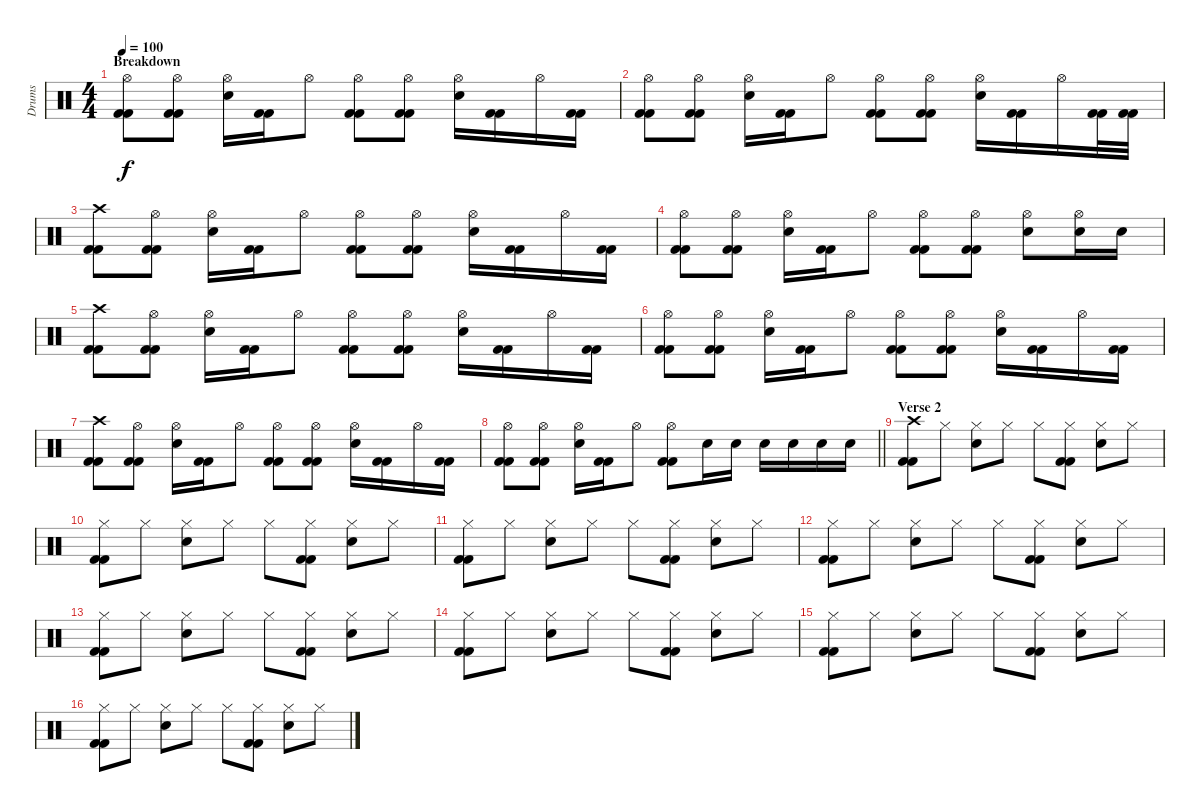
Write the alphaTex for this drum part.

\track ("Drums" "Drums") {instrument percussion}
\staff {score}
\articulation defaults
\ts (4 4)
\section ("" "Breakdown")
\tempo 100
\clef neutral
\ks c
("Hi-Hat (open)" "Kick (hit) 2" "Kick (hit) 2").8{dy f} ("Hi-Hat (open)" "Kick (hit) 2" "Kick (hit) 2").8 ("Hi-Hat (open)" "Electric Snare (hit)").16 ("Kick (hit) 2" "Kick (hit) 2").16 "Hi-Hat (open)".8 ("Hi-Hat (open)" "Kick (hit) 2" "Kick (hit) 2").8 ("Hi-Hat (open)" "Kick (hit) 2" "Kick (hit) 2").8 ("Hi-Hat (open)" "Electric Snare (hit)").16 ("Kick (hit) 2" "Kick (hit) 2").16 "Hi-Hat (open)".16 ("Kick (hit) 2" "Kick (hit) 2").16 |
("Hi-Hat (open)" "Kick (hit) 2" "Kick (hit) 2").8 ("Hi-Hat (open)" "Kick (hit) 2" "Kick (hit) 2").8 ("Hi-Hat (open)" "Electric Snare (hit)").16 ("Kick (hit) 2" "Kick (hit) 2").16 "Hi-Hat (open)".8 ("Hi-Hat (open)" "Kick (hit) 2" "Kick (hit) 2").8 ("Hi-Hat (open)" "Kick (hit) 2" "Kick (hit) 2").8 ("Hi-Hat (open)" "Electric Snare (hit)").16 ("Kick (hit) 2" "Kick (hit) 2").16 "Hi-Hat (open)".16 ("Kick (hit) 2" "Kick (hit) 2").32 ("Kick (hit) 2" "Kick (hit) 2").32 |
("Crash high (hit)" "Kick (hit) 2" "Kick (hit) 2").8 ("Hi-Hat (open)" "Kick (hit) 2" "Kick (hit) 2").8 ("Hi-Hat (open)" "Electric Snare (hit)").16 ("Kick (hit) 2" "Kick (hit) 2").16 "Hi-Hat (open)".8 ("Hi-Hat (open)" "Kick (hit) 2" "Kick (hit) 2").8 ("Hi-Hat (open)" "Kick (hit) 2" "Kick (hit) 2").8 ("Hi-Hat (open)" "Electric Snare (hit)").16 ("Kick (hit) 2" "Kick (hit) 2").16 "Hi-Hat (open)".16 ("Kick (hit) 2" "Kick (hit) 2").16 |
("Hi-Hat (open)" "Kick (hit) 2" "Kick (hit) 2").8 ("Hi-Hat (open)" "Kick (hit) 2" "Kick (hit) 2").8 ("Hi-Hat (open)" "Electric Snare (hit)").16 ("Kick (hit) 2" "Kick (hit) 2").16 "Hi-Hat (open)".8 ("Hi-Hat (open)" "Kick (hit) 2" "Kick (hit) 2").8 ("Hi-Hat (open)" "Kick (hit) 2" "Kick (hit) 2").8 ("Hi-Hat (open)" "Electric Snare (hit)").8 ("Hi-Hat (open)" "Electric Snare (hit)").16 "Electric Snare (hit)".16 |
("Crash high (hit)" "Kick (hit) 2" "Kick (hit) 2").8 ("Hi-Hat (open)" "Kick (hit) 2" "Kick (hit) 2").8 ("Hi-Hat (open)" "Electric Snare (hit)").16 ("Kick (hit) 2" "Kick (hit) 2").16 "Hi-Hat (open)".8 ("Hi-Hat (open)" "Kick (hit) 2" "Kick (hit) 2").8 ("Hi-Hat (open)" "Kick (hit) 2" "Kick (hit) 2").8 ("Hi-Hat (open)" "Electric Snare (hit)").16 ("Kick (hit) 2" "Kick (hit) 2").16 "Hi-Hat (open)".16 ("Kick (hit) 2" "Kick (hit) 2").16 |
("Hi-Hat (open)" "Kick (hit) 2" "Kick (hit) 2").8 ("Hi-Hat (open)" "Kick (hit) 2" "Kick (hit) 2").8 ("Hi-Hat (open)" "Electric Snare (hit)").16 ("Kick (hit) 2" "Kick (hit) 2").16 "Hi-Hat (open)".8 ("Hi-Hat (open)" "Kick (hit) 2" "Kick (hit) 2").8 ("Hi-Hat (open)" "Kick (hit) 2" "Kick (hit) 2").8 ("Hi-Hat (open)" "Electric Snare (hit)").16 ("Kick (hit) 2" "Kick (hit) 2").16 "Hi-Hat (open)".16 ("Kick (hit) 2" "Kick (hit) 2").16 |
("Crash high (hit)" "Kick (hit) 2" "Kick (hit) 2").8 ("Hi-Hat (open)" "Kick (hit) 2" "Kick (hit) 2").8 ("Hi-Hat (open)" "Electric Snare (hit)").16 ("Kick (hit) 2" "Kick (hit) 2").16 "Hi-Hat (open)".8 ("Hi-Hat (open)" "Kick (hit) 2" "Kick (hit) 2").8 ("Hi-Hat (open)" "Kick (hit) 2" "Kick (hit) 2").8 ("Hi-Hat (open)" "Electric Snare (hit)").16 ("Kick (hit) 2" "Kick (hit) 2").16 "Hi-Hat (open)".16 ("Kick (hit) 2" "Kick (hit) 2").16 |
\barLineRight lightlight
("Hi-Hat (open)" "Kick (hit) 2" "Kick (hit) 2").8 ("Hi-Hat (open)" "Kick (hit) 2" "Kick (hit) 2").8 ("Hi-Hat (open)" "Electric Snare (hit)").16 ("Kick (hit) 2" "Kick (hit) 2").16 "Hi-Hat (open)".8 ("Hi-Hat (open)" "Kick (hit) 2" "Kick (hit) 2").8 "Electric Snare (hit)".16 "Electric Snare (hit)".16 "Electric Snare (hit)".16 "Electric Snare (hit)".16 "Electric Snare (hit)".16 "Electric Snare (hit)".16 |
\section ("" "Verse 2")
("Crash high (hit)" "Kick (hit) 2" "Kick (hit) 2").8 "Hi-Hat (closed)".8 ("Hi-Hat (closed)" "Electric Snare (hit)").8 "Hi-Hat (closed)".8 "Hi-Hat (closed)".8 ("Hi-Hat (closed)" "Kick (hit) 2" "Kick (hit) 2").8 ("Hi-Hat (closed)" "Electric Snare (hit)").8 "Hi-Hat (closed)".8 |
("Hi-Hat (closed)" "Kick (hit) 2" "Kick (hit) 2").8 "Hi-Hat (closed)".8 ("Hi-Hat (closed)" "Electric Snare (hit)").8 "Hi-Hat (closed)".8 "Hi-Hat (closed)".8 ("Hi-Hat (closed)" "Kick (hit) 2" "Kick (hit) 2").8 ("Hi-Hat (closed)" "Electric Snare (hit)").8 "Hi-Hat (closed)".8 |
("Hi-Hat (closed)" "Kick (hit) 2" "Kick (hit) 2").8 "Hi-Hat (closed)".8 ("Hi-Hat (closed)" "Electric Snare (hit)").8 "Hi-Hat (closed)".8 "Hi-Hat (closed)".8 ("Hi-Hat (closed)" "Kick (hit) 2" "Kick (hit) 2").8 ("Hi-Hat (closed)" "Electric Snare (hit)").8 "Hi-Hat (closed)".8 |
("Hi-Hat (closed)" "Kick (hit) 2" "Kick (hit) 2").8 "Hi-Hat (closed)".8 ("Hi-Hat (closed)" "Electric Snare (hit)").8 "Hi-Hat (closed)".8 "Hi-Hat (closed)".8 ("Hi-Hat (closed)" "Kick (hit) 2" "Kick (hit) 2").8 ("Hi-Hat (closed)" "Electric Snare (hit)").8 "Hi-Hat (closed)".8 |
("Hi-Hat (closed)" "Kick (hit) 2" "Kick (hit) 2").8 "Hi-Hat (closed)".8 ("Hi-Hat (closed)" "Electric Snare (hit)").8 "Hi-Hat (closed)".8 "Hi-Hat (closed)".8 ("Hi-Hat (closed)" "Kick (hit) 2" "Kick (hit) 2").8 ("Hi-Hat (closed)" "Electric Snare (hit)").8 "Hi-Hat (closed)".8 |
("Hi-Hat (closed)" "Kick (hit) 2" "Kick (hit) 2").8 "Hi-Hat (closed)".8 ("Hi-Hat (closed)" "Electric Snare (hit)").8 "Hi-Hat (closed)".8 "Hi-Hat (closed)".8 ("Hi-Hat (closed)" "Kick (hit) 2" "Kick (hit) 2").8 ("Hi-Hat (closed)" "Electric Snare (hit)").8 "Hi-Hat (closed)".8 |
("Hi-Hat (closed)" "Kick (hit) 2" "Kick (hit) 2").8 "Hi-Hat (closed)".8 ("Hi-Hat (closed)" "Electric Snare (hit)").8 "Hi-Hat (closed)".8 "Hi-Hat (closed)".8 ("Hi-Hat (closed)" "Kick (hit) 2" "Kick (hit) 2").8 ("Hi-Hat (closed)" "Electric Snare (hit)").8 "Hi-Hat (closed)".8 |
("Hi-Hat (closed)" "Kick (hit) 2" "Kick (hit) 2").8 "Hi-Hat (closed)".8 ("Hi-Hat (closed)" "Electric Snare (hit)").8 "Hi-Hat (closed)".8 "Hi-Hat (closed)".8 ("Hi-Hat (closed)" "Kick (hit) 2" "Kick (hit) 2").8 ("Hi-Hat (closed)" "Electric Snare (hit)").8 "Hi-Hat (closed)".8
